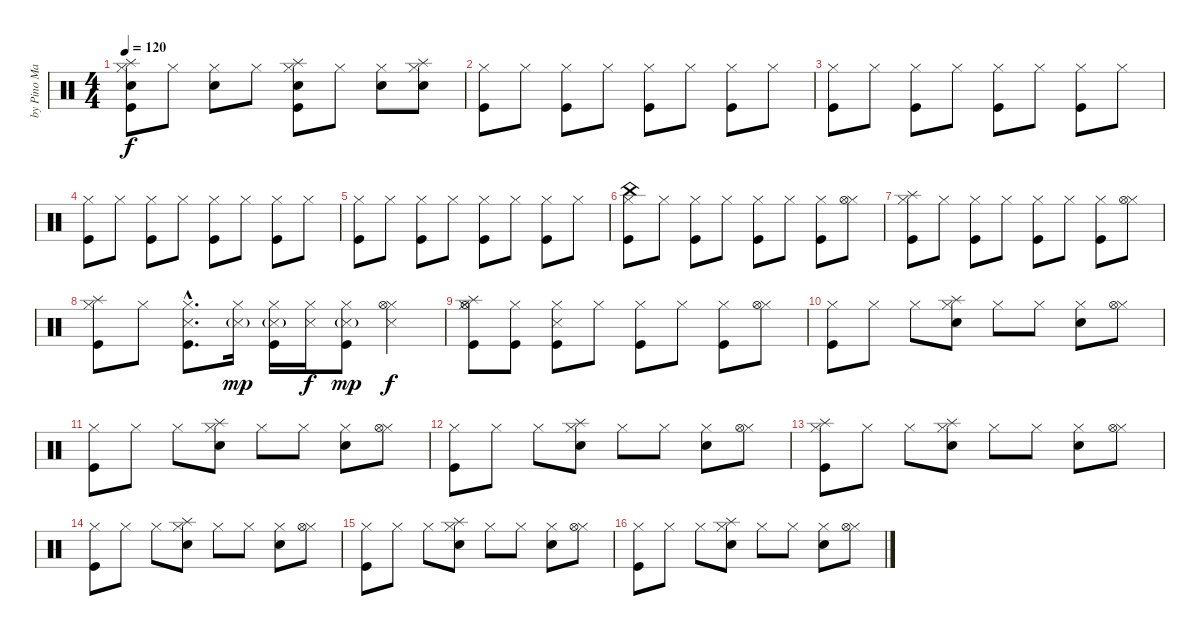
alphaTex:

\track ("by Pino Mariconda - e Gianni De Vita" "by Pino Ma") {instrument percussion}
\staff {score}
\articulation defaults
\ts (4 4)
\tempo 120
\clef neutral
\ks c
("Splash (hit)" "Hi-Hat (closed)" "Snare (hit) 2" "Kick (hit)").8{dy f} "Hi-Hat (closed)".8 ("Hi-Hat (closed)" "Snare (hit) 2").8 "Hi-Hat (closed)".8 ("Splash (hit)" "Hi-Hat (closed)" "Snare (hit) 2" "Kick (hit)").8 "Hi-Hat (closed)".8 ("Hi-Hat (closed)" "Snare (hit) 2").8 ("Splash (hit)" "Hi-Hat (closed)" "Snare (hit) 2").8 |
("Hi-Hat (closed)" "Kick (hit)").8 "Hi-Hat (closed)".8 ("Hi-Hat (closed)" "Kick (hit)").8 "Hi-Hat (closed)".8 ("Hi-Hat (closed)" "Kick (hit)").8 "Hi-Hat (closed)".8 ("Hi-Hat (closed)" "Kick (hit)").8 "Hi-Hat (closed)".8 |
("Hi-Hat (closed)" "Kick (hit)").8 "Hi-Hat (closed)".8 ("Hi-Hat (closed)" "Kick (hit)").8 "Hi-Hat (closed)".8 ("Hi-Hat (closed)" "Kick (hit)").8 "Hi-Hat (closed)".8 ("Hi-Hat (closed)" "Kick (hit)").8 "Hi-Hat (closed)".8 |
("Hi-Hat (closed)" "Kick (hit)").8 "Hi-Hat (closed)".8 ("Hi-Hat (closed)" "Kick (hit)").8 "Hi-Hat (closed)".8 ("Hi-Hat (closed)" "Kick (hit)").8 "Hi-Hat (closed)".8 ("Hi-Hat (closed)" "Kick (hit)").8 "Hi-Hat (closed)".8 |
("Hi-Hat (closed)" "Kick (hit)").8 "Hi-Hat (closed)".8 ("Hi-Hat (closed)" "Kick (hit)").8 "Hi-Hat (closed)".8 ("Hi-Hat (closed)" "Kick (hit)").8 "Hi-Hat (closed)".8 ("Hi-Hat (closed)" "Kick (hit)").8 "Hi-Hat (closed)".8 |
("China (hit)" "Hi-Hat (closed)" "Kick (hit)").8 "Hi-Hat (closed)".8 ("Hi-Hat (closed)" "Kick (hit)").8 "Hi-Hat (closed)".8 ("Hi-Hat (closed)" "Kick (hit)").8 "Hi-Hat (closed)".8 ("Hi-Hat (closed)" "Kick (hit)").8 ("Hi-Hat (closed)" "Hi-Hat (open)").8 |
("Splash (hit)" "Hi-Hat (closed)" "Kick (hit)").8 "Hi-Hat (closed)".8 ("Hi-Hat (closed)" "Kick (hit)").8 "Hi-Hat (closed)".8 ("Hi-Hat (closed)" "Kick (hit)").8 "Hi-Hat (closed)".8 ("Hi-Hat (closed)" "Kick (hit)").8 ("Hi-Hat (closed)" "Hi-Hat (open)").8 |
("Splash (hit)" "Hi-Hat (closed)" "Kick (hit)").8 "Hi-Hat (closed)".8 ("Hi-Hat (closed)"{hac} "Kick (hit)"{hac} "Snare (side stick) 3"{hac}).8{d} ("Hi-Hat (closed)" "Snare (side stick) 3"{g}).16{dy mp} ("Hi-Hat (closed)" "Kick (hit)" "Snare (side stick) 3"{g}).16 ("Hi-Hat (closed)" "Snare (side stick) 3").16{dy f} ("Hi-Hat (closed)" "Kick (hit)" "Snare (side stick) 3"{g}).8{dy mp} ("Hi-Hat (closed)" "Hi-Hat (open)" "Snare (side stick) 3").4{dy f} |
("Splash (hit)" "Hi-Hat (closed)" "Kick (hit)" "Hi-Hat (open)").8 ("Hi-Hat (closed)" "Kick (hit)").8 ("Hi-Hat (closed)" "Kick (hit)" "Snare (side stick) 3").8 "Hi-Hat (closed)".8 ("Hi-Hat (closed)" "Kick (hit)").8 "Hi-Hat (closed)".8 ("Hi-Hat (closed)" "Kick (hit)").8 ("Hi-Hat (closed)" "Hi-Hat (open)").8 |
("Hi-Hat (closed)" "Kick (hit)").8 "Hi-Hat (closed)".8 "Hi-Hat (closed)".8 ("Splash (hit)" "Hi-Hat (closed)" "Snare (hit) 2").8 "Hi-Hat (closed)".8 "Hi-Hat (closed)".8 ("Hi-Hat (closed)" "Snare (hit) 2").8 ("Hi-Hat (closed)" "Hi-Hat (open)").8 |
("Hi-Hat (closed)" "Kick (hit)").8 "Hi-Hat (closed)".8 "Hi-Hat (closed)".8 ("Splash (hit)" "Hi-Hat (closed)" "Snare (hit) 2").8 "Hi-Hat (closed)".8 "Hi-Hat (closed)".8 ("Hi-Hat (closed)" "Snare (hit) 2").8 ("Hi-Hat (closed)" "Hi-Hat (open)").8 |
("Hi-Hat (closed)" "Kick (hit)").8 "Hi-Hat (closed)".8 "Hi-Hat (closed)".8 ("Splash (hit)" "Hi-Hat (closed)" "Snare (hit) 2").8 "Hi-Hat (closed)".8 "Hi-Hat (closed)".8 ("Hi-Hat (closed)" "Snare (hit) 2").8 ("Hi-Hat (closed)" "Hi-Hat (open)").8 |
("Splash (hit)" "Hi-Hat (closed)" "Kick (hit)").8 "Hi-Hat (closed)".8 "Hi-Hat (closed)".8 ("Splash (hit)" "Hi-Hat (closed)" "Snare (hit) 2").8 "Hi-Hat (closed)".8 "Hi-Hat (closed)".8 ("Hi-Hat (closed)" "Snare (hit) 2").8 ("Hi-Hat (closed)" "Hi-Hat (open)").8 |
("Hi-Hat (closed)" "Kick (hit)").8 "Hi-Hat (closed)".8 "Hi-Hat (closed)".8 ("Splash (hit)" "Hi-Hat (closed)" "Snare (hit) 2").8 "Hi-Hat (closed)".8 "Hi-Hat (closed)".8 ("Hi-Hat (closed)" "Snare (hit) 2").8 ("Hi-Hat (closed)" "Hi-Hat (open)").8 |
("Hi-Hat (closed)" "Kick (hit)").8 "Hi-Hat (closed)".8 "Hi-Hat (closed)".8 ("Splash (hit)" "Hi-Hat (closed)" "Snare (hit) 2").8 "Hi-Hat (closed)".8 "Hi-Hat (closed)".8 ("Hi-Hat (closed)" "Snare (hit) 2").8 ("Hi-Hat (closed)" "Hi-Hat (open)").8 |
("Hi-Hat (closed)" "Kick (hit)").8 "Hi-Hat (closed)".8 "Hi-Hat (closed)".8 ("Splash (hit)" "Hi-Hat (closed)" "Snare (hit) 2").8 "Hi-Hat (closed)".8 "Hi-Hat (closed)".8 ("Hi-Hat (closed)" "Snare (hit) 2").8 ("Hi-Hat (closed)" "Hi-Hat (open)").8
